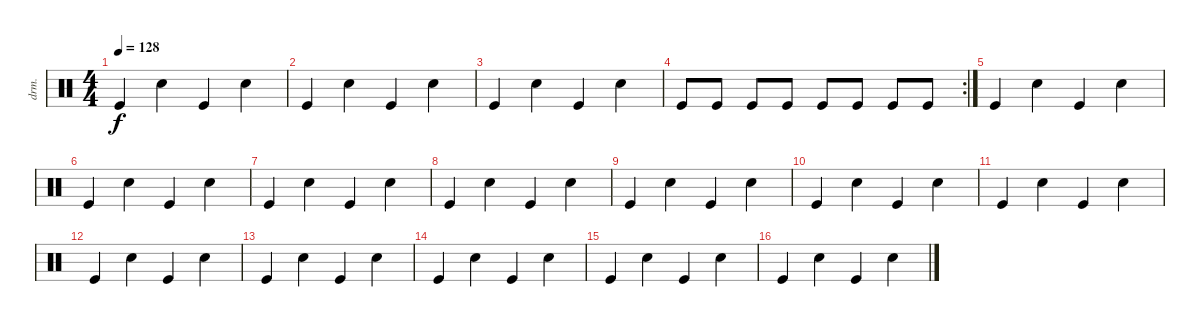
\defaultSystemsLayout 4
\bracketExtendMode groupsimilarinstruments
\otherSystemsTrackNameOrientation horizontal
\track ("Drumkit" "drm.") {instrument percussion}
\staff {score}
\articulation defaults
\ts (4 4)
\tempo 128
\clef neutral
\ks c "Kick (hit)".4{dy f} "Snare (hit) 2".4 "Kick (hit)".4 "Snare (hit) 2".4
|
"Kick (hit)".4 "Snare (hit) 2".4 "Kick (hit)".4 "Snare (hit) 2".4 |
"Kick (hit)".4 "Snare (hit) 2".4 "Kick (hit)".4 "Snare (hit) 2".4 |
\rc 2 "Kick (hit)".8 "Kick (hit)".8 "Kick (hit)".8 "Kick (hit)".8 "Kick (hit)".8 "Kick (hit)".8 "Kick (hit)".8 "Kick (hit)".8
|
"Kick (hit)".4 "Snare (hit) 2".4 "Kick (hit)".4 "Snare (hit) 2".4 |
"Kick (hit)".4 "Snare (hit) 2".4 "Kick (hit)".4 "Snare (hit) 2".4 |
"Kick (hit)".4 "Snare (hit) 2".4 "Kick (hit)".4 "Snare (hit) 2".4 |
"Kick (hit)".4 "Snare (hit) 2".4 "Kick (hit)".4 "Snare (hit) 2".4 |
"Kick (hit)".4 "Snare (hit) 2".4 "Kick (hit)".4 "Snare (hit) 2".4 |
"Kick (hit)".4 "Snare (hit) 2".4 "Kick (hit)".4 "Snare (hit) 2".4 |
"Kick (hit)".4 "Snare (hit) 2".4 "Kick (hit)".4 "Snare (hit) 2".4 |
"Kick (hit)".4 "Snare (hit) 2".4 "Kick (hit)".4 "Snare (hit) 2".4 |
"Kick (hit)".4 "Snare (hit) 2".4 "Kick (hit)".4 "Snare (hit) 2".4 |
"Kick (hit)".4 "Snare (hit) 2".4 "Kick (hit)".4 "Snare (hit) 2".4 |
"Kick (hit)".4 "Snare (hit) 2".4 "Kick (hit)".4 "Snare (hit) 2".4 |
"Kick (hit)".4 "Snare (hit) 2".4 "Kick (hit)".4 "Snare (hit) 2".4
